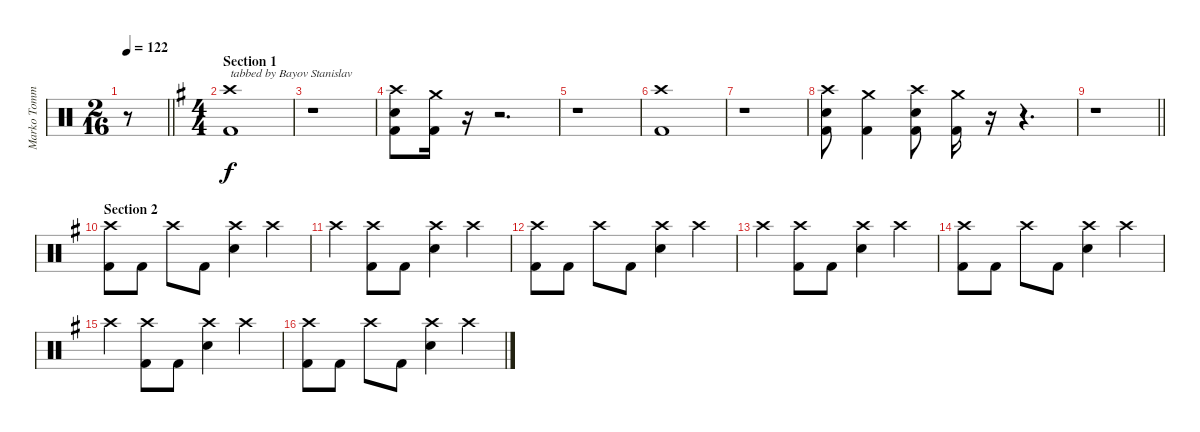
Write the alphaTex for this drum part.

\track ("Marko Tommila (drums)" "Marko Tomm") {instrument percussion}
\staff {score}
\articulation defaults
\ts (2 16)
\tempo 122
\clef neutral
\barLineRight lightlight
\ks c
r.8{dy f} |
\ts (4 4)
\section ("" "Section 1")
\ks eminor
("Crash high (hit)" "Kick (hit) 2").1{txt "tabbed by Bayov Stanislav"} |
r.1 |
("Crash high (hit)" "Snare (hit) 2" "Kick (hit) 2").8 ("Crash medium (hit)" "Kick (hit) 2").16 r.16 r.2{d} |
r.1 |
("Crash high (hit)" "Kick (hit) 2").1 |
r.1 |
("Crash high (hit)" "Snare (hit) 2" "Kick (hit) 2").8 ("Crash medium (hit)" "Kick (hit) 2").4 ("Crash high (hit)" "Snare (hit) 2" "Kick (hit) 2").8 ("Crash medium (hit)" "Kick (hit) 2").16 r.16 r.4{d} |
\barLineRight lightlight
r.1 |
\section ("" "Section 2")
("Crash high (hit)" "Kick (hit) 2").8 "Kick (hit) 2".8 "Crash high (hit)".8 "Kick (hit) 2".8 ("Crash high (hit)" "Snare (hit) 2").4 "Crash high (hit)".4 |
"Crash high (hit)".4 ("Crash high (hit)" "Kick (hit) 2").8 "Kick (hit) 2".8 ("Crash high (hit)" "Snare (hit) 2").4 "Crash high (hit)".4 |
("Crash high (hit)" "Kick (hit) 2").8 "Kick (hit) 2".8 "Crash high (hit)".8 "Kick (hit) 2".8 ("Crash high (hit)" "Snare (hit) 2").4 "Crash high (hit)".4 |
"Crash high (hit)".4 ("Crash high (hit)" "Kick (hit) 2").8 "Kick (hit) 2".8 ("Crash high (hit)" "Snare (hit) 2").4 "Crash high (hit)".4 |
("Crash high (hit)" "Kick (hit) 2").8 "Kick (hit) 2".8 "Crash high (hit)".8 "Kick (hit) 2".8 ("Crash high (hit)" "Snare (hit) 2").4 "Crash high (hit)".4 |
"Crash high (hit)".4 ("Crash high (hit)" "Kick (hit) 2").8 "Kick (hit) 2".8 ("Crash high (hit)" "Snare (hit) 2").4 "Crash high (hit)".4 |
("Crash high (hit)" "Kick (hit) 2").8 "Kick (hit) 2".8 "Crash high (hit)".8 "Kick (hit) 2".8 ("Crash high (hit)" "Snare (hit) 2").4 "Crash high (hit)".4
